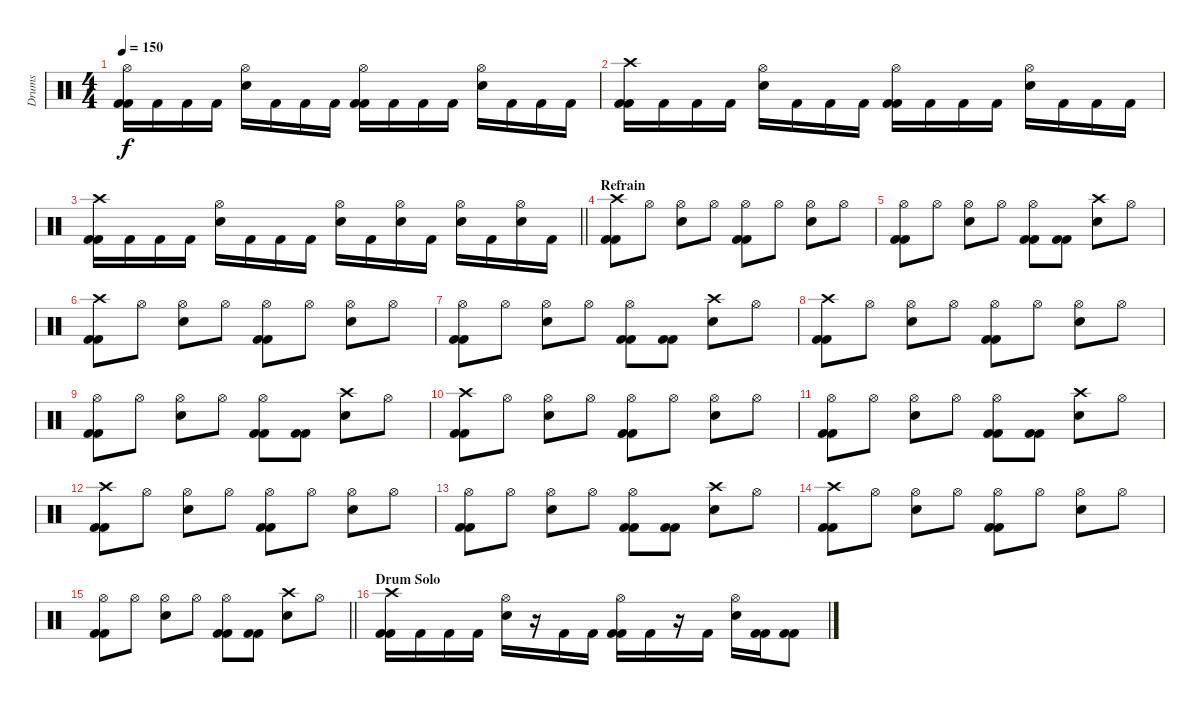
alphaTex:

\track ("Drums" "Drums") {instrument percussion}
\staff {score}
\articulation defaults
\ts (4 4)
\tempo 150
\clef neutral
\ks c
("Hi-Hat (open)" "Kick (hit) 2" "Kick (hit) 2").16{dy f} "Kick (hit) 2".16 "Kick (hit) 2".16 "Kick (hit) 2".16 ("Electric Snare (hit)" "Hi-Hat (open)").16 "Kick (hit) 2".16 "Kick (hit) 2".16 "Kick (hit) 2".16 ("Hi-Hat (open)" "Kick (hit) 2" "Kick (hit) 2").16 "Kick (hit) 2".16 "Kick (hit) 2".16 "Kick (hit) 2".16 ("Electric Snare (hit)" "Hi-Hat (open)").16 "Kick (hit) 2".16 "Kick (hit) 2".16 "Kick (hit) 2".16 |
("Crash high (hit)" "Kick (hit) 2" "Kick (hit) 2").16 "Kick (hit) 2".16 "Kick (hit) 2".16 "Kick (hit) 2".16 ("Electric Snare (hit)" "Hi-Hat (open)").16 "Kick (hit) 2".16 "Kick (hit) 2".16 "Kick (hit) 2".16 ("Hi-Hat (open)" "Kick (hit) 2" "Kick (hit) 2").16 "Kick (hit) 2".16 "Kick (hit) 2".16 "Kick (hit) 2".16 ("Electric Snare (hit)" "Hi-Hat (open)").16 "Kick (hit) 2".16 "Kick (hit) 2".16 "Kick (hit) 2".16 |
\barLineRight lightlight
("Crash high (hit)" "Kick (hit) 2" "Kick (hit) 2").16 "Kick (hit) 2".16 "Kick (hit) 2".16 "Kick (hit) 2".16 ("Electric Snare (hit)" "Hi-Hat (open)").16 "Kick (hit) 2".16 "Kick (hit) 2".16 "Kick (hit) 2".16 ("Hi-Hat (open)" "Electric Snare (hit)").16 "Kick (hit) 2".16 ("Electric Snare (hit)" "Hi-Hat (open)").16 "Kick (hit) 2".16 ("Electric Snare (hit)" "Hi-Hat (open)").16 "Kick (hit) 2".16 ("Hi-Hat (open)" "Electric Snare (hit)").16 "Kick (hit) 2".16 |
\section ("" "Refrain")
("Crash high (hit)" "Kick (hit) 2" "Kick (hit) 2").8 "Hi-Hat (open)".8 ("Electric Snare (hit)" "Hi-Hat (open)").8 "Hi-Hat (open)".8 ("Hi-Hat (open)" "Kick (hit) 2" "Kick (hit) 2").8 "Hi-Hat (open)".8 ("Electric Snare (hit)" "Hi-Hat (open)").8 "Hi-Hat (open)".8 |
("Hi-Hat (open)" "Kick (hit) 2" "Kick (hit) 2").8 "Hi-Hat (open)".8 ("Electric Snare (hit)" "Hi-Hat (open)").8 "Hi-Hat (open)".8 ("Hi-Hat (open)" "Kick (hit) 2" "Kick (hit) 2").8 ("Kick (hit) 2" "Kick (hit) 2").8 ("Electric Snare (hit)" "Crash high (hit)").8 "Hi-Hat (open)".8 |
("Crash high (hit)" "Kick (hit) 2" "Kick (hit) 2").8 "Hi-Hat (open)".8 ("Electric Snare (hit)" "Hi-Hat (open)").8 "Hi-Hat (open)".8 ("Hi-Hat (open)" "Kick (hit) 2" "Kick (hit) 2").8 "Hi-Hat (open)".8 ("Electric Snare (hit)" "Hi-Hat (open)").8 "Hi-Hat (open)".8 |
("Hi-Hat (open)" "Kick (hit) 2" "Kick (hit) 2").8 "Hi-Hat (open)".8 ("Electric Snare (hit)" "Hi-Hat (open)").8 "Hi-Hat (open)".8 ("Hi-Hat (open)" "Kick (hit) 2" "Kick (hit) 2").8 ("Kick (hit) 2" "Kick (hit) 2").8 ("Electric Snare (hit)" "Crash high (hit)").8 "Hi-Hat (open)".8 |
("Crash high (hit)" "Kick (hit) 2" "Kick (hit) 2").8 "Hi-Hat (open)".8 ("Electric Snare (hit)" "Hi-Hat (open)").8 "Hi-Hat (open)".8 ("Hi-Hat (open)" "Kick (hit) 2" "Kick (hit) 2").8 "Hi-Hat (open)".8 ("Electric Snare (hit)" "Hi-Hat (open)").8 "Hi-Hat (open)".8 |
("Hi-Hat (open)" "Kick (hit) 2" "Kick (hit) 2").8 "Hi-Hat (open)".8 ("Electric Snare (hit)" "Hi-Hat (open)").8 "Hi-Hat (open)".8 ("Hi-Hat (open)" "Kick (hit) 2" "Kick (hit) 2").8 ("Kick (hit) 2" "Kick (hit) 2").8 ("Electric Snare (hit)" "Crash high (hit)").8 "Hi-Hat (open)".8 |
("Crash high (hit)" "Kick (hit) 2" "Kick (hit) 2").8 "Hi-Hat (open)".8 ("Electric Snare (hit)" "Hi-Hat (open)").8 "Hi-Hat (open)".8 ("Hi-Hat (open)" "Kick (hit) 2" "Kick (hit) 2").8 "Hi-Hat (open)".8 ("Electric Snare (hit)" "Hi-Hat (open)").8 "Hi-Hat (open)".8 |
("Hi-Hat (open)" "Kick (hit) 2" "Kick (hit) 2").8 "Hi-Hat (open)".8 ("Electric Snare (hit)" "Hi-Hat (open)").8 "Hi-Hat (open)".8 ("Hi-Hat (open)" "Kick (hit) 2" "Kick (hit) 2").8 ("Kick (hit) 2" "Kick (hit) 2").8 ("Electric Snare (hit)" "Crash high (hit)").8 "Hi-Hat (open)".8 |
("Crash high (hit)" "Kick (hit) 2" "Kick (hit) 2").8 "Hi-Hat (open)".8 ("Electric Snare (hit)" "Hi-Hat (open)").8 "Hi-Hat (open)".8 ("Hi-Hat (open)" "Kick (hit) 2" "Kick (hit) 2").8 "Hi-Hat (open)".8 ("Electric Snare (hit)" "Hi-Hat (open)").8 "Hi-Hat (open)".8 |
("Hi-Hat (open)" "Kick (hit) 2" "Kick (hit) 2").8 "Hi-Hat (open)".8 ("Electric Snare (hit)" "Hi-Hat (open)").8 "Hi-Hat (open)".8 ("Hi-Hat (open)" "Kick (hit) 2" "Kick (hit) 2").8 ("Kick (hit) 2" "Kick (hit) 2").8 ("Electric Snare (hit)" "Crash high (hit)").8 "Hi-Hat (open)".8 |
("Crash high (hit)" "Kick (hit) 2" "Kick (hit) 2").8 "Hi-Hat (open)".8 ("Electric Snare (hit)" "Hi-Hat (open)").8 "Hi-Hat (open)".8 ("Hi-Hat (open)" "Kick (hit) 2" "Kick (hit) 2").8 "Hi-Hat (open)".8 ("Electric Snare (hit)" "Hi-Hat (open)").8 "Hi-Hat (open)".8 |
\barLineRight lightlight
("Hi-Hat (open)" "Kick (hit) 2" "Kick (hit) 2").8 "Hi-Hat (open)".8 ("Electric Snare (hit)" "Hi-Hat (open)").8 "Hi-Hat (open)".8 ("Hi-Hat (open)" "Kick (hit) 2" "Kick (hit) 2").8 ("Kick (hit) 2" "Kick (hit) 2").8 ("Electric Snare (hit)" "Crash high (hit)").8 "Hi-Hat (open)".8 |
\section ("" "Drum Solo")
("Crash high (hit)" "Kick (hit) 2" "Kick (hit) 2").16 "Kick (hit) 2".16 "Kick (hit) 2".16 "Kick (hit) 2".16 ("Electric Snare (hit)" "Hi-Hat (open)").16 r.16 "Kick (hit) 2".16 "Kick (hit) 2".16 ("Hi-Hat (open)" "Kick (hit) 2" "Kick (hit) 2").16 "Kick (hit) 2".16 r.16 "Kick (hit) 2".16 ("Electric Snare (hit)" "Hi-Hat (open)").16 ("Kick (hit) 2" "Kick (hit) 2").16 ("Kick (hit) 2" "Kick (hit) 2").8
